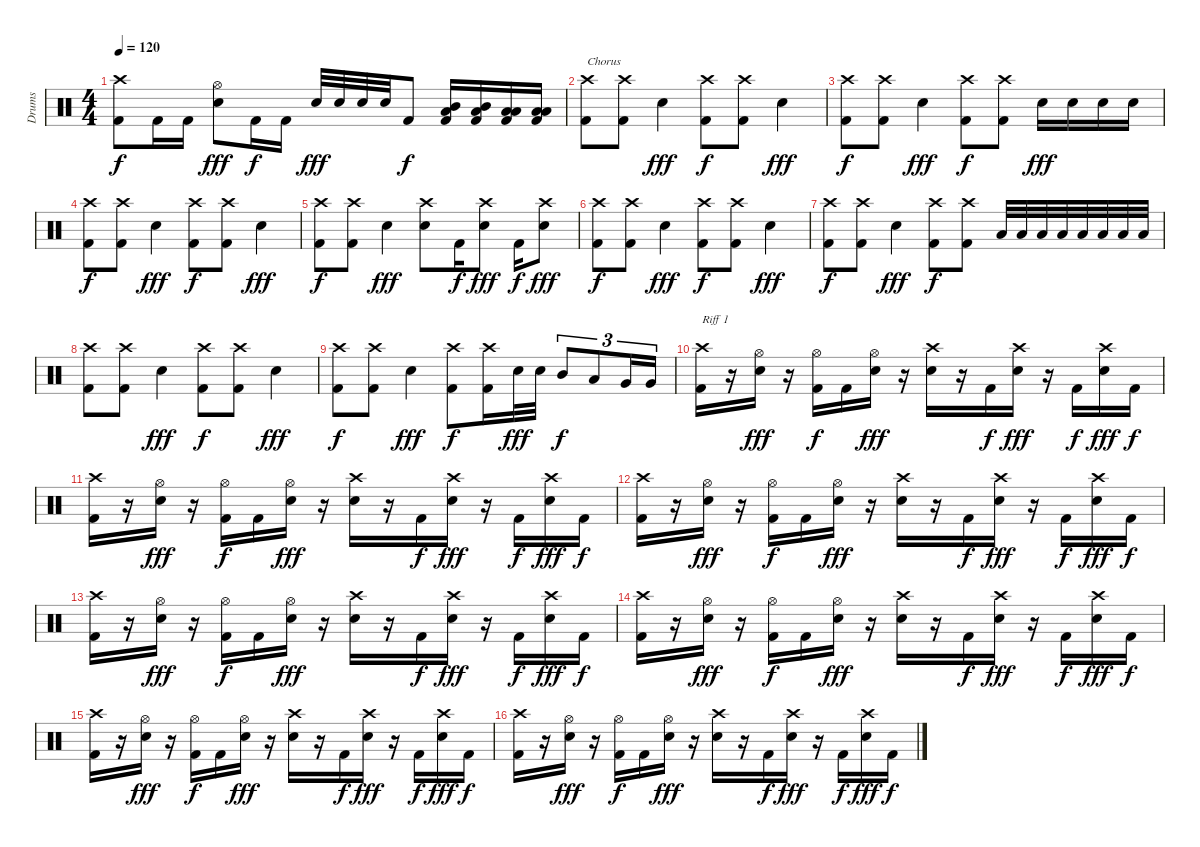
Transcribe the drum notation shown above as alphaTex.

\track ("Drums" "Drums") {instrument percussion}
\staff {score}
\articulation defaults
\ts (4 4)
\tempo 120
\clef neutral
\ks c
("Crash high (hit)" "Kick (hit) 2").8{dy f} "Kick (hit) 2".16 "Kick (hit) 2".16 ("Hi-Hat (open)" "Snare (hit) 2").8{dy fff} "Kick (hit) 2".16{dy f} "Kick (hit) 2".16 "Snare (hit) 2".32{dy fff} "Snare (hit) 2".32 "Snare (hit) 2".32 "Snare (hit) 2".32 "Kick (hit) 2".8{dy f} ("Mid Tom (hit)" "Low Tom (hit)" "Kick (hit) 2").16 ("Mid Tom (hit)" "Low Tom (hit)" "Kick (hit) 2").16 ("Low Tom (hit)" "Low Floor Tom (hit)" "Kick (hit) 2").16 ("Low Tom (hit)" "Low Floor Tom (hit)" "Kick (hit) 2").16 |
("Crash high (hit)" "Kick (hit) 2").8{txt "Chorus"} ("Crash high (hit)" "Kick (hit) 2").8 "Snare (hit) 2".4{dy fff} ("Crash high (hit)" "Kick (hit) 2").8{dy f} ("Crash high (hit)" "Kick (hit) 2").8 "Snare (hit) 2".4{dy fff} |
("Crash high (hit)" "Kick (hit) 2").8{dy f} ("Crash high (hit)" "Kick (hit) 2").8 "Snare (hit) 2".4{dy fff} ("Crash high (hit)" "Kick (hit) 2").8{dy f} ("Crash high (hit)" "Kick (hit) 2").8 "Snare (hit) 2".16{dy fff} "Snare (hit) 2".16 "Snare (hit) 2".16 "Snare (hit) 2".16 |
("Crash high (hit)" "Kick (hit) 2").8{dy f} ("Crash high (hit)" "Kick (hit) 2").8 "Snare (hit) 2".4{dy fff} ("Crash high (hit)" "Kick (hit) 2").8{dy f} ("Crash high (hit)" "Kick (hit) 2").8 "Snare (hit) 2".4{dy fff} |
("Crash high (hit)" "Kick (hit) 2").8{dy f} ("Crash high (hit)" "Kick (hit) 2").8 "Snare (hit) 2".4{dy fff} ("Crash high (hit)" "Snare (hit) 2").8 "Kick (hit) 2".16{dy f} ("Crash high (hit)" "Snare (hit) 2").8{dy fff} "Kick (hit) 2".16{dy f} ("Crash high (hit)" "Snare (hit) 2").8{dy fff} |
("Crash high (hit)" "Kick (hit) 2").8{dy f} ("Crash high (hit)" "Kick (hit) 2").8 "Snare (hit) 2".4{dy fff} ("Crash high (hit)" "Kick (hit) 2").8{dy f} ("Crash high (hit)" "Kick (hit) 2").8 "Snare (hit) 2".4{dy fff} |
("Crash high (hit)" "Kick (hit) 2").8{dy f} ("Crash high (hit)" "Kick (hit) 2").8 "Snare (hit) 2".4{dy fff} ("Crash high (hit)" "Kick (hit) 2").8{dy f} ("Crash high (hit)" "Kick (hit) 2").8 "Low Tom (hit)".32 "Low Tom (hit)".32 "Low Tom (hit)".32 "Low Tom (hit)".32 "Low Floor Tom (hit)".32 "Low Floor Tom (hit)".32 "Low Floor Tom (hit)".32 "Low Floor Tom (hit)".32 |
("Crash high (hit)" "Kick (hit) 2").8 ("Crash high (hit)" "Kick (hit) 2").8 "Snare (hit) 2".4{dy fff} ("Crash high (hit)" "Kick (hit) 2").8{dy f} ("Crash high (hit)" "Kick (hit) 2").8 "Snare (hit) 2".4{dy fff} |
("Crash high (hit)" "Kick (hit) 2").8{dy f} ("Crash high (hit)" "Kick (hit) 2").8 "Snare (hit) 2".4{dy fff} ("Crash high (hit)" "Kick (hit) 2").8{dy f} ("Crash high (hit)" "Kick (hit) 2").16 "Snare (hit) 2".32{dy fff} "Snare (hit) 2".32 "Mid Tom (hit)".8{tu (3 2) dy f} "Low Tom (hit)".8{tu (3 2)} "Very Low Tom (hit)".16{tu (3 2)} "Very Low Tom (hit)".16{tu (3 2)} |
("Crash high (hit)" "Kick (hit) 2").16{txt "Riff 1"} r.16 ("Hi-Hat (open)" "Snare (hit) 2").16{dy fff} r.16 ("Hi-Hat (open)" "Kick (hit) 2").16{dy f} "Kick (hit) 2".16 ("Hi-Hat (open)" "Snare (hit) 2").16{dy fff} r.16 ("Crash high (hit)" "Snare (hit) 2").16 r.16 "Kick (hit) 2".16{dy f} ("Crash high (hit)" "Snare (hit) 2").16{dy fff} r.16 "Kick (hit) 2".16{dy f} ("Crash high (hit)" "Snare (hit) 2").16{dy fff} "Kick (hit) 2".16{dy f} |
("Crash high (hit)" "Kick (hit) 2").16 r.16 ("Hi-Hat (open)" "Snare (hit) 2").16{dy fff} r.16 ("Hi-Hat (open)" "Kick (hit) 2").16{dy f} "Kick (hit) 2".16 ("Hi-Hat (open)" "Snare (hit) 2").16{dy fff} r.16 ("Crash high (hit)" "Snare (hit) 2").16 r.16 "Kick (hit) 2".16{dy f} ("Crash high (hit)" "Snare (hit) 2").16{dy fff} r.16 "Kick (hit) 2".16{dy f} ("Crash high (hit)" "Snare (hit) 2").16{dy fff} "Kick (hit) 2".16{dy f} |
("Crash high (hit)" "Kick (hit) 2").16 r.16 ("Hi-Hat (open)" "Snare (hit) 2").16{dy fff} r.16 ("Hi-Hat (open)" "Kick (hit) 2").16{dy f} "Kick (hit) 2".16 ("Hi-Hat (open)" "Snare (hit) 2").16{dy fff} r.16 ("Crash high (hit)" "Snare (hit) 2").16 r.16 "Kick (hit) 2".16{dy f} ("Crash high (hit)" "Snare (hit) 2").16{dy fff} r.16 "Kick (hit) 2".16{dy f} ("Crash high (hit)" "Snare (hit) 2").16{dy fff} "Kick (hit) 2".16{dy f} |
("Crash high (hit)" "Kick (hit) 2").16 r.16 ("Hi-Hat (open)" "Snare (hit) 2").16{dy fff} r.16 ("Hi-Hat (open)" "Kick (hit) 2").16{dy f} "Kick (hit) 2".16 ("Hi-Hat (open)" "Snare (hit) 2").16{dy fff} r.16 ("Crash high (hit)" "Snare (hit) 2").16 r.16 "Kick (hit) 2".16{dy f} ("Crash high (hit)" "Snare (hit) 2").16{dy fff} r.16 "Kick (hit) 2".16{dy f} ("Crash high (hit)" "Snare (hit) 2").16{dy fff} "Kick (hit) 2".16{dy f} |
("Crash high (hit)" "Kick (hit) 2").16 r.16 ("Hi-Hat (open)" "Snare (hit) 2").16{dy fff} r.16 ("Hi-Hat (open)" "Kick (hit) 2").16{dy f} "Kick (hit) 2".16 ("Hi-Hat (open)" "Snare (hit) 2").16{dy fff} r.16 ("Crash high (hit)" "Snare (hit) 2").16 r.16 "Kick (hit) 2".16{dy f} ("Crash high (hit)" "Snare (hit) 2").16{dy fff} r.16 "Kick (hit) 2".16{dy f} ("Crash high (hit)" "Snare (hit) 2").16{dy fff} "Kick (hit) 2".16{dy f} |
("Crash high (hit)" "Kick (hit) 2").16 r.16 ("Hi-Hat (open)" "Snare (hit) 2").16{dy fff} r.16 ("Hi-Hat (open)" "Kick (hit) 2").16{dy f} "Kick (hit) 2".16 ("Hi-Hat (open)" "Snare (hit) 2").16{dy fff} r.16 ("Crash high (hit)" "Snare (hit) 2").16 r.16 "Kick (hit) 2".16{dy f} ("Crash high (hit)" "Snare (hit) 2").16{dy fff} r.16 "Kick (hit) 2".16{dy f} ("Crash high (hit)" "Snare (hit) 2").16{dy fff} "Kick (hit) 2".16{dy f} |
("Crash high (hit)" "Kick (hit) 2").16 r.16 ("Hi-Hat (open)" "Snare (hit) 2").16{dy fff} r.16 ("Hi-Hat (open)" "Kick (hit) 2").16{dy f} "Kick (hit) 2".16 ("Hi-Hat (open)" "Snare (hit) 2").16{dy fff} r.16 ("Crash high (hit)" "Snare (hit) 2").16 r.16 "Kick (hit) 2".16{dy f} ("Crash high (hit)" "Snare (hit) 2").16{dy fff} r.16 "Kick (hit) 2".16{dy f} ("Crash high (hit)" "Snare (hit) 2").16{dy fff} "Kick (hit) 2".16{dy f}
